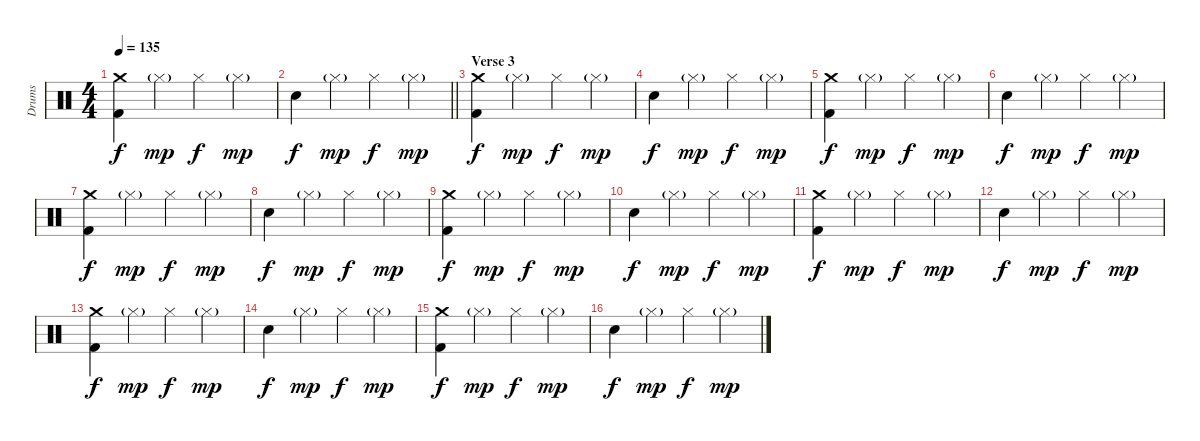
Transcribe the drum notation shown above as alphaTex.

\track ("Drums" "Drums") {instrument percussion}
\staff {score}
\articulation defaults
\ts (4 4)
\tempo 135
\clef neutral
\ks c
("Crash medium (hit)" "Kick (hit) 2").4{dy f} "Hi-Hat (closed)"{g}.4{dy mp} "Hi-Hat (closed)".4{dy f} "Hi-Hat (closed)"{g}.4{dy mp} |
\barLineRight lightlight "Electric Snare (hit)".4{dy f} "Hi-Hat (closed)"{g}.4{dy mp} "Hi-Hat (closed)".4{dy f} "Hi-Hat (closed)"{g}.4{dy mp}
|
\section ("" "Verse 3")
("Crash medium (hit)" "Kick (hit) 2").4{dy f} "Hi-Hat (closed)"{g}.4{dy mp} "Hi-Hat (closed)".4{dy f} "Hi-Hat (closed)"{g}.4{dy mp} |
"Electric Snare (hit)".4{dy f} "Hi-Hat (closed)"{g}.4{dy mp} "Hi-Hat (closed)".4{dy f} "Hi-Hat (closed)"{g}.4{dy mp} |
("Crash medium (hit)" "Kick (hit) 2").4{dy f} "Hi-Hat (closed)"{g}.4{dy mp} "Hi-Hat (closed)".4{dy f} "Hi-Hat (closed)"{g}.4{dy mp} |
"Electric Snare (hit)".4{dy f} "Hi-Hat (closed)"{g}.4{dy mp} "Hi-Hat (closed)".4{dy f} "Hi-Hat (closed)"{g}.4{dy mp} |
("Crash medium (hit)" "Kick (hit) 2").4{dy f} "Hi-Hat (closed)"{g}.4{dy mp} "Hi-Hat (closed)".4{dy f} "Hi-Hat (closed)"{g}.4{dy mp} |
"Electric Snare (hit)".4{dy f} "Hi-Hat (closed)"{g}.4{dy mp} "Hi-Hat (closed)".4{dy f} "Hi-Hat (closed)"{g}.4{dy mp} |
("Crash medium (hit)" "Kick (hit) 2").4{dy f} "Hi-Hat (closed)"{g}.4{dy mp} "Hi-Hat (closed)".4{dy f} "Hi-Hat (closed)"{g}.4{dy mp} |
"Electric Snare (hit)".4{dy f} "Hi-Hat (closed)"{g}.4{dy mp} "Hi-Hat (closed)".4{dy f} "Hi-Hat (closed)"{g}.4{dy mp} |
("Crash medium (hit)" "Kick (hit) 2").4{dy f} "Hi-Hat (closed)"{g}.4{dy mp} "Hi-Hat (closed)".4{dy f} "Hi-Hat (closed)"{g}.4{dy mp} |
"Electric Snare (hit)".4{dy f} "Hi-Hat (closed)"{g}.4{dy mp} "Hi-Hat (closed)".4{dy f} "Hi-Hat (closed)"{g}.4{dy mp} |
("Crash medium (hit)" "Kick (hit) 2").4{dy f} "Hi-Hat (closed)"{g}.4{dy mp} "Hi-Hat (closed)".4{dy f} "Hi-Hat (closed)"{g}.4{dy mp} |
"Electric Snare (hit)".4{dy f} "Hi-Hat (closed)"{g}.4{dy mp} "Hi-Hat (closed)".4{dy f} "Hi-Hat (closed)"{g}.4{dy mp} |
("Crash medium (hit)" "Kick (hit) 2").4{dy f} "Hi-Hat (closed)"{g}.4{dy mp} "Hi-Hat (closed)".4{dy f} "Hi-Hat (closed)"{g}.4{dy mp} |
"Electric Snare (hit)".4{dy f} "Hi-Hat (closed)"{g}.4{dy mp} "Hi-Hat (closed)".4{dy f} "Hi-Hat (closed)"{g}.4{dy mp}
